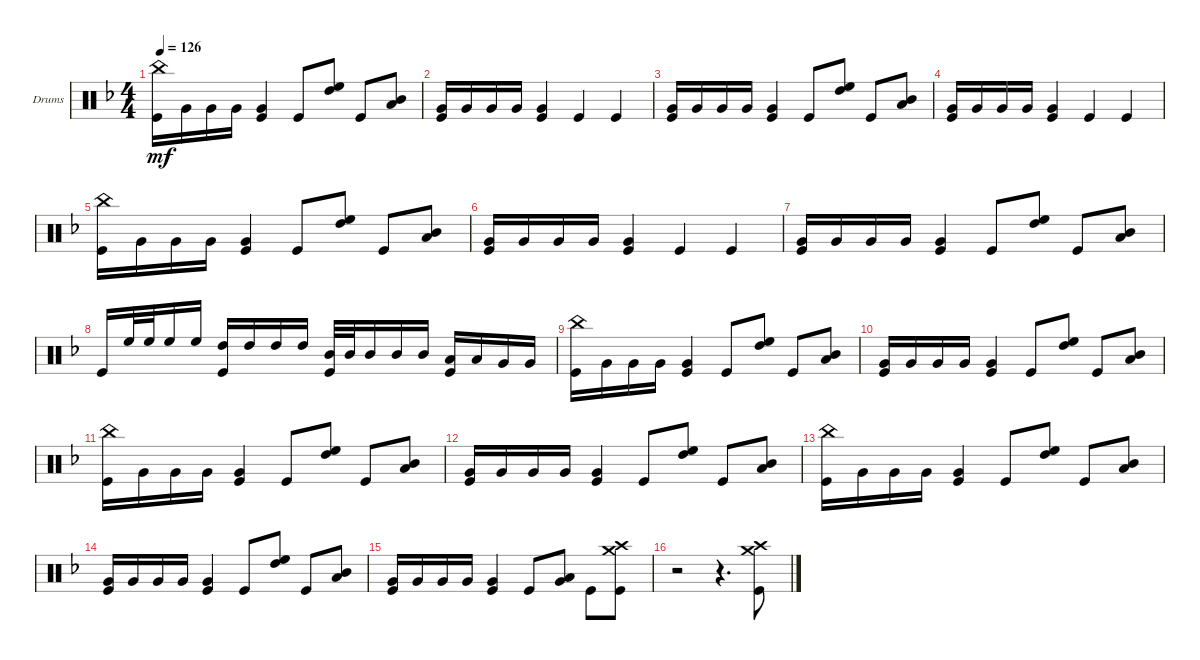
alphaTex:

\defaultSystemsLayout 4
\bracketExtendMode groupsimilarinstruments
\firstSystemTrackNameOrientation horizontal
\otherSystemsTrackNameOrientation horizontal
\track ("Drumkit" "Drums") {instrument percussion}
\staff {score}
\articulation defaults
\ts (4 4)
\tempo 126
\clef neutral
\ks f
("China (hit)" "Kick (hit)").16{dy mf} "Very Low Tom (hit)".16 "Very Low Tom (hit)".16 "Very Low Tom (hit)".16 ("Kick (hit)" "Very Low Tom (hit)").4 "Kick (hit)".8 ("High Floor Tom (hit)" "High Tom (hit)").8 "Kick (hit)".8 ("Mid Tom (hit)" "Low Tom (hit)").8 |
("Kick (hit)" "Very Low Tom (hit)").16 "Very Low Tom (hit)".16 "Very Low Tom (hit)".16 "Very Low Tom (hit)".16 ("Very Low Tom (hit)" "Kick (hit)").4 "Kick (hit)".4 "Kick (hit)".4 |
("Kick (hit)" "Very Low Tom (hit)").16 "Very Low Tom (hit)".16 "Very Low Tom (hit)".16 "Very Low Tom (hit)".16 ("Kick (hit)" "Very Low Tom (hit)").4 "Kick (hit)".8 ("High Floor Tom (hit)" "High Tom (hit)").8 "Kick (hit)".8 ("Mid Tom (hit)" "Low Tom (hit)").8 |
("Kick (hit)" "Very Low Tom (hit)").16 "Very Low Tom (hit)".16 "Very Low Tom (hit)".16 "Very Low Tom (hit)".16 ("Very Low Tom (hit)" "Kick (hit)").4 "Kick (hit)".4 "Kick (hit)".4 |
("China (hit)" "Kick (hit)").16 "Very Low Tom (hit)".16 "Very Low Tom (hit)".16 "Very Low Tom (hit)".16 ("Kick (hit)" "Very Low Tom (hit)").4 "Kick (hit)".8 ("High Floor Tom (hit)" "High Tom (hit)").8 "Kick (hit)".8 ("Mid Tom (hit)" "Low Tom (hit)").8 |
("Kick (hit)" "Very Low Tom (hit)").16 "Very Low Tom (hit)".16 "Very Low Tom (hit)".16 "Very Low Tom (hit)".16 ("Very Low Tom (hit)" "Kick (hit)").4 "Kick (hit)".4 "Kick (hit)".4 |
("Kick (hit)" "Very Low Tom (hit)").16 "Very Low Tom (hit)".16 "Very Low Tom (hit)".16 "Very Low Tom (hit)".16 ("Kick (hit)" "Very Low Tom (hit)").4 "Kick (hit)".8 ("High Floor Tom (hit)" "High Tom (hit)").8 "Kick (hit)".8 ("Mid Tom (hit)" "Low Tom (hit)").8 |
"Kick (hit)".16 "High Floor Tom (hit)".32 "High Floor Tom (hit)".32 "High Floor Tom (hit)".16 "High Floor Tom (hit)".16 ("Kick (hit)" "High Tom (hit)").16 "High Tom (hit)".16 "High Tom (hit)".16 "High Tom (hit)".16 ("Kick (hit)" "Mid Tom (hit)").32 "Mid Tom (hit)".32 "Mid Tom (hit)".16 "Mid Tom (hit)".16 "Mid Tom (hit)".16 ("Low Tom (hit)" "Kick (hit)").16 "Low Tom (hit)".16 "Very Low Tom (hit)".16 "Very Low Tom (hit)".16 |
("China (hit)" "Kick (hit)").16 "Very Low Tom (hit)".16 "Very Low Tom (hit)".16 "Very Low Tom (hit)".16 ("Kick (hit)" "Very Low Tom (hit)").4 "Kick (hit)".8 ("High Floor Tom (hit)" "High Tom (hit)").8 "Kick (hit)".8 ("Mid Tom (hit)" "Low Tom (hit)").8 |
("Kick (hit)" "Very Low Tom (hit)").16 "Very Low Tom (hit)".16 "Very Low Tom (hit)".16 "Very Low Tom (hit)".16 ("Kick (hit)" "Very Low Tom (hit)").4 "Kick (hit)".8 ("High Floor Tom (hit)" "High Tom (hit)").8 "Kick (hit)".8 ("Mid Tom (hit)" "Low Tom (hit)").8 |
("China (hit)" "Kick (hit)").16 "Very Low Tom (hit)".16 "Very Low Tom (hit)".16 "Very Low Tom (hit)".16 ("Kick (hit)" "Very Low Tom (hit)").4 "Kick (hit)".8 ("High Floor Tom (hit)" "High Tom (hit)").8 "Kick (hit)".8 ("Mid Tom (hit)" "Low Tom (hit)").8 |
("Kick (hit)" "Very Low Tom (hit)").16 "Very Low Tom (hit)".16 "Very Low Tom (hit)".16 "Very Low Tom (hit)".16 ("Kick (hit)" "Very Low Tom (hit)").4 "Kick (hit)".8 ("High Floor Tom (hit)" "High Tom (hit)").8 "Kick (hit)".8 ("Mid Tom (hit)" "Low Tom (hit)").8 |
("China (hit)" "Kick (hit)").16 "Very Low Tom (hit)".16 "Very Low Tom (hit)".16 "Very Low Tom (hit)".16 ("Kick (hit)" "Very Low Tom (hit)").4 "Kick (hit)".8 ("High Floor Tom (hit)" "High Tom (hit)").8 "Kick (hit)".8 ("Mid Tom (hit)" "Low Tom (hit)").8 |
("Kick (hit)" "Very Low Tom (hit)").16 "Very Low Tom (hit)".16 "Very Low Tom (hit)".16 "Very Low Tom (hit)".16 ("Kick (hit)" "Very Low Tom (hit)").4 "Kick (hit)".8 ("High Floor Tom (hit)" "High Tom (hit)").8 "Kick (hit)".8 ("Mid Tom (hit)" "Low Tom (hit)").8 |
("Kick (hit)" "Very Low Tom (hit)").16 "Very Low Tom (hit)".16 "Very Low Tom (hit)".16 "Very Low Tom (hit)".16 ("Kick (hit)" "Very Low Tom (hit)").4 "Kick (hit)".8 ("Very Low Tom (hit)" "Low Tom (hit)").8 "Kick (hit)".8 ("Kick (hit)" "Crash medium (hit)" "Crash high (hit)").8 |
r.2 r.4{d} ("Crash medium (hit)" "Kick (hit)" "Crash high (hit)").8
